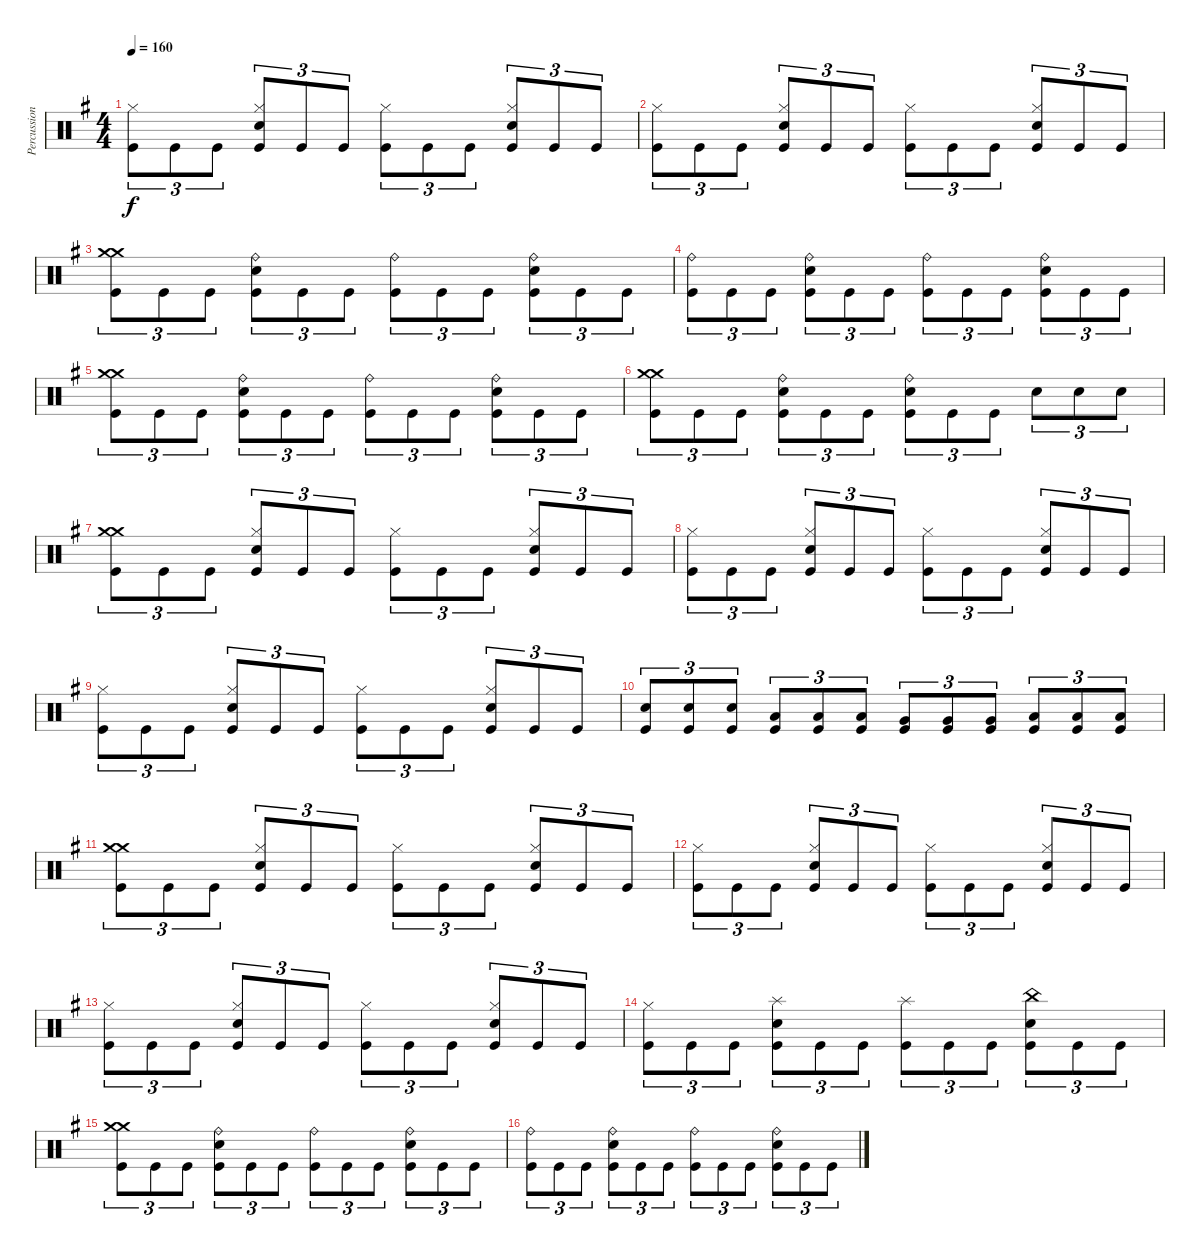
\track ("Percussions" "Percussion") {instrument percussion}
\staff {score}
\articulation defaults
\ts (4 4)
\tempo 160
\clef neutral
\ks g
("Kick (hit)" "Hi-Hat (closed)").8{tu (3 2) dy f} "Kick (hit)".8{tu (3 2)} "Kick (hit)".8{tu (3 2)} ("Kick (hit)" "Electric Snare (hit)" "Hi-Hat (closed)").8{tu (3 2)} "Kick (hit)".8{tu (3 2)} "Kick (hit)".8{tu (3 2)} ("Kick (hit)" "Hi-Hat (closed)").8{tu (3 2)} "Kick (hit)".8{tu (3 2)} "Kick (hit)".8{tu (3 2)} ("Kick (hit)" "Electric Snare (hit)" "Hi-Hat (closed)").8{tu (3 2)} "Kick (hit)".8{tu (3 2)} "Kick (hit)".8{tu (3 2)} |
("Kick (hit)" "Hi-Hat (closed)").8{tu (3 2)} "Kick (hit)".8{tu (3 2)} "Kick (hit)".8{tu (3 2)} ("Kick (hit)" "Electric Snare (hit)" "Hi-Hat (closed)").8{tu (3 2)} "Kick (hit)".8{tu (3 2)} "Kick (hit)".8{tu (3 2)} ("Kick (hit)" "Hi-Hat (closed)").8{tu (3 2)} "Kick (hit)".8{tu (3 2)} "Kick (hit)".8{tu (3 2)} ("Kick (hit)" "Electric Snare (hit)" "Hi-Hat (closed)").8{tu (3 2)} "Kick (hit)".8{tu (3 2)} "Kick (hit)".8{tu (3 2)} |
("Kick (hit)" "Crash medium (hit)" "Crash medium (hit)").8{tu (3 2)} "Kick (hit)".8{tu (3 2)} "Kick (hit)".8{tu (3 2)} ("Kick (hit)" "Electric Snare (hit)" "Ride (bell)").8{tu (3 2)} "Kick (hit)".8{tu (3 2)} "Kick (hit)".8{tu (3 2)} ("Kick (hit)" "Ride (bell)").8{tu (3 2)} "Kick (hit)".8{tu (3 2)} "Kick (hit)".8{tu (3 2)} ("Kick (hit)" "Electric Snare (hit)" "Ride (bell)").8{tu (3 2)} "Kick (hit)".8{tu (3 2)} "Kick (hit)".8{tu (3 2)} |
("Kick (hit)" "Ride (bell)").8{tu (3 2)} "Kick (hit)".8{tu (3 2)} "Kick (hit)".8{tu (3 2)} ("Kick (hit)" "Electric Snare (hit)" "Ride (bell)").8{tu (3 2)} "Kick (hit)".8{tu (3 2)} "Kick (hit)".8{tu (3 2)} ("Kick (hit)" "Ride (bell)").8{tu (3 2)} "Kick (hit)".8{tu (3 2)} "Kick (hit)".8{tu (3 2)} ("Kick (hit)" "Electric Snare (hit)" "Ride (bell)").8{tu (3 2)} "Kick (hit)".8{tu (3 2)} "Kick (hit)".8{tu (3 2)} |
("Kick (hit)" "Crash medium (hit)" "Crash medium (hit)").8{tu (3 2)} "Kick (hit)".8{tu (3 2)} "Kick (hit)".8{tu (3 2)} ("Kick (hit)" "Electric Snare (hit)" "Ride (bell)").8{tu (3 2)} "Kick (hit)".8{tu (3 2)} "Kick (hit)".8{tu (3 2)} ("Kick (hit)" "Ride (bell)").8{tu (3 2)} "Kick (hit)".8{tu (3 2)} "Kick (hit)".8{tu (3 2)} ("Kick (hit)" "Electric Snare (hit)" "Ride (bell)").8{tu (3 2)} "Kick (hit)".8{tu (3 2)} "Kick (hit)".8{tu (3 2)} |
("Kick (hit)" "Crash medium (hit)" "Crash medium (hit)").8{tu (3 2)} "Kick (hit)".8{tu (3 2)} "Kick (hit)".8{tu (3 2)} ("Kick (hit)" "Electric Snare (hit)" "Ride (bell)").8{tu (3 2)} "Kick (hit)".8{tu (3 2)} "Kick (hit)".8{tu (3 2)} ("Kick (hit)" "Electric Snare (hit)" "Ride (bell)").8{tu (3 2)} "Kick (hit)".8{tu (3 2)} "Kick (hit)".8{tu (3 2)} "Electric Snare (hit)".8{tu (3 2)} "Electric Snare (hit)".8{tu (3 2)} "Electric Snare (hit)".8{tu (3 2)} |
("Kick (hit)" "Crash medium (hit)" "Crash medium (hit)").8{tu (3 2)} "Kick (hit)".8{tu (3 2)} "Kick (hit)".8{tu (3 2)} ("Kick (hit)" "Electric Snare (hit)" "Hi-Hat (closed)").8{tu (3 2)} "Kick (hit)".8{tu (3 2)} "Kick (hit)".8{tu (3 2)} ("Kick (hit)" "Hi-Hat (closed)").8{tu (3 2)} "Kick (hit)".8{tu (3 2)} "Kick (hit)".8{tu (3 2)} ("Kick (hit)" "Electric Snare (hit)" "Hi-Hat (closed)").8{tu (3 2)} "Kick (hit)".8{tu (3 2)} "Kick (hit)".8{tu (3 2)} |
("Kick (hit)" "Hi-Hat (closed)").8{tu (3 2)} "Kick (hit)".8{tu (3 2)} "Kick (hit)".8{tu (3 2)} ("Kick (hit)" "Electric Snare (hit)" "Hi-Hat (closed)").8{tu (3 2)} "Kick (hit)".8{tu (3 2)} "Kick (hit)".8{tu (3 2)} ("Kick (hit)" "Hi-Hat (closed)").8{tu (3 2)} "Kick (hit)".8{tu (3 2)} "Kick (hit)".8{tu (3 2)} ("Kick (hit)" "Electric Snare (hit)" "Hi-Hat (closed)").8{tu (3 2)} "Kick (hit)".8{tu (3 2)} "Kick (hit)".8{tu (3 2)} |
("Kick (hit)" "Hi-Hat (closed)").8{tu (3 2)} "Kick (hit)".8{tu (3 2)} "Kick (hit)".8{tu (3 2)} ("Kick (hit)" "Electric Snare (hit)" "Hi-Hat (closed)").8{tu (3 2)} "Kick (hit)".8{tu (3 2)} "Kick (hit)".8{tu (3 2)} ("Kick (hit)" "Hi-Hat (closed)").8{tu (3 2)} "Kick (hit)".8{tu (3 2)} "Kick (hit)".8{tu (3 2)} ("Kick (hit)" "Electric Snare (hit)" "Hi-Hat (closed)").8{tu (3 2)} "Kick (hit)".8{tu (3 2)} "Kick (hit)".8{tu (3 2)} |
("Kick (hit)" "Electric Snare (hit)").8{tu (3 2)} ("Kick (hit)" "Electric Snare (hit)").8{tu (3 2)} ("Kick (hit)" "Electric Snare (hit)").8{tu (3 2)} ("Kick (hit)" "Low Tom (hit)").8{tu (3 2)} ("Kick (hit)" "Low Tom (hit)").8{tu (3 2)} ("Kick (hit)" "Low Tom (hit)").8{tu (3 2)} ("Kick (hit)" "Very Low Tom (hit)").8{tu (3 2)} ("Kick (hit)" "Very Low Tom (hit)").8{tu (3 2)} ("Kick (hit)" "Very Low Tom (hit)").8{tu (3 2)} ("Kick (hit)" "Low Floor Tom (hit)").8{tu (3 2)} ("Kick (hit)" "Low Floor Tom (hit)").8{tu (3 2)} ("Kick (hit)" "Low Floor Tom (hit)").8{tu (3 2)} |
("Kick (hit)" "Crash medium (hit)" "Crash medium (hit)").8{tu (3 2)} "Kick (hit)".8{tu (3 2)} "Kick (hit)".8{tu (3 2)} ("Kick (hit)" "Electric Snare (hit)" "Hi-Hat (closed)").8{tu (3 2)} "Kick (hit)".8{tu (3 2)} "Kick (hit)".8{tu (3 2)} ("Kick (hit)" "Hi-Hat (closed)").8{tu (3 2)} "Kick (hit)".8{tu (3 2)} "Kick (hit)".8{tu (3 2)} ("Kick (hit)" "Electric Snare (hit)" "Hi-Hat (closed)").8{tu (3 2)} "Kick (hit)".8{tu (3 2)} "Kick (hit)".8{tu (3 2)} |
("Kick (hit)" "Hi-Hat (closed)").8{tu (3 2)} "Kick (hit)".8{tu (3 2)} "Kick (hit)".8{tu (3 2)} ("Kick (hit)" "Electric Snare (hit)" "Hi-Hat (closed)").8{tu (3 2)} "Kick (hit)".8{tu (3 2)} "Kick (hit)".8{tu (3 2)} ("Kick (hit)" "Hi-Hat (closed)").8{tu (3 2)} "Kick (hit)".8{tu (3 2)} "Kick (hit)".8{tu (3 2)} ("Kick (hit)" "Electric Snare (hit)" "Hi-Hat (closed)").8{tu (3 2)} "Kick (hit)".8{tu (3 2)} "Kick (hit)".8{tu (3 2)} |
("Kick (hit)" "Hi-Hat (closed)").8{tu (3 2)} "Kick (hit)".8{tu (3 2)} "Kick (hit)".8{tu (3 2)} ("Kick (hit)" "Electric Snare (hit)" "Hi-Hat (closed)").8{tu (3 2)} "Kick (hit)".8{tu (3 2)} "Kick (hit)".8{tu (3 2)} ("Kick (hit)" "Hi-Hat (closed)").8{tu (3 2)} "Kick (hit)".8{tu (3 2)} "Kick (hit)".8{tu (3 2)} ("Kick (hit)" "Electric Snare (hit)" "Hi-Hat (closed)").8{tu (3 2)} "Kick (hit)".8{tu (3 2)} "Kick (hit)".8{tu (3 2)} |
("Kick (hit)" "Hi-Hat (closed)").8{tu (3 2)} "Kick (hit)".8{tu (3 2)} "Kick (hit)".8{tu (3 2)} ("Kick (hit)" "Electric Snare (hit)" "Splash (hit)").8{tu (3 2)} "Kick (hit)".8{tu (3 2)} "Kick (hit)".8{tu (3 2)} ("Kick (hit)" "Splash (hit)").8{tu (3 2)} "Kick (hit)".8{tu (3 2)} "Kick (hit)".8{tu (3 2)} ("Kick (hit)" "Electric Snare (hit)" "China (hit)").8{tu (3 2)} "Kick (hit)".8{tu (3 2)} "Kick (hit)".8{tu (3 2)} |
("Kick (hit)" "Crash medium (hit)" "Crash medium (hit)").8{tu (3 2)} "Kick (hit)".8{tu (3 2)} "Kick (hit)".8{tu (3 2)} ("Kick (hit)" "Electric Snare (hit)" "Ride (bell)").8{tu (3 2)} "Kick (hit)".8{tu (3 2)} "Kick (hit)".8{tu (3 2)} ("Kick (hit)" "Ride (bell)").8{tu (3 2)} "Kick (hit)".8{tu (3 2)} "Kick (hit)".8{tu (3 2)} ("Kick (hit)" "Electric Snare (hit)" "Ride (bell)").8{tu (3 2)} "Kick (hit)".8{tu (3 2)} "Kick (hit)".8{tu (3 2)} |
("Kick (hit)" "Ride (bell)").8{tu (3 2)} "Kick (hit)".8{tu (3 2)} "Kick (hit)".8{tu (3 2)} ("Kick (hit)" "Electric Snare (hit)" "Ride (bell)").8{tu (3 2)} "Kick (hit)".8{tu (3 2)} "Kick (hit)".8{tu (3 2)} ("Kick (hit)" "Ride (bell)").8{tu (3 2)} "Kick (hit)".8{tu (3 2)} "Kick (hit)".8{tu (3 2)} ("Kick (hit)" "Electric Snare (hit)" "Ride (bell)").8{tu (3 2)} "Kick (hit)".8{tu (3 2)} "Kick (hit)".8{tu (3 2)}
